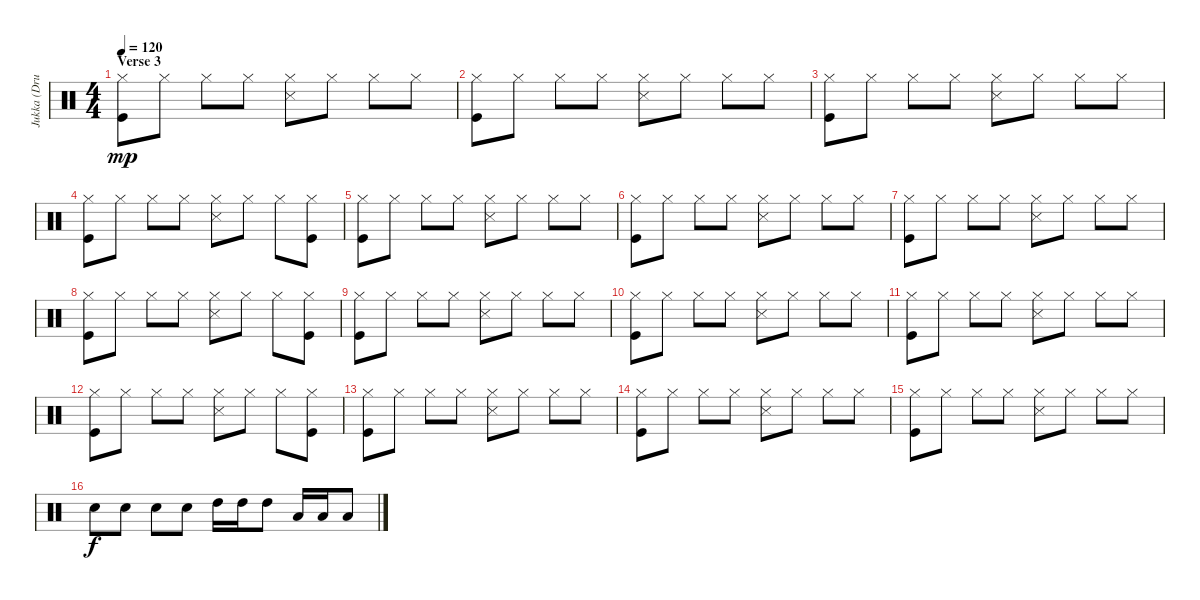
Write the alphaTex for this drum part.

\track ("Jukka (Drums)" "Jukka (Dru") {instrument percussion}
\staff {score}
\articulation defaults
\ts (4 4)
\section ("" "Verse 3")
\tempo 120
\clef neutral
\ks c
("Hi-Hat (closed)" "Kick (hit)").8{dy mp} "Hi-Hat (closed)".8 "Hi-Hat (closed)".8 "Hi-Hat (closed)".8 ("Hi-Hat (closed)" "Metronome (hit)").8 "Hi-Hat (closed)".8 "Hi-Hat (closed)".8 "Hi-Hat (closed)".8 |
("Hi-Hat (closed)" "Kick (hit)").8 "Hi-Hat (closed)".8 "Hi-Hat (closed)".8 "Hi-Hat (closed)".8 ("Hi-Hat (closed)" "Metronome (hit)").8 "Hi-Hat (closed)".8 "Hi-Hat (closed)".8 "Hi-Hat (closed)".8 |
("Hi-Hat (closed)" "Kick (hit)").8 "Hi-Hat (closed)".8 "Hi-Hat (closed)".8 "Hi-Hat (closed)".8 ("Hi-Hat (closed)" "Metronome (hit)").8 "Hi-Hat (closed)".8 "Hi-Hat (closed)".8 "Hi-Hat (closed)".8 |
("Hi-Hat (closed)" "Kick (hit)").8 "Hi-Hat (closed)".8 "Hi-Hat (closed)".8 "Hi-Hat (closed)".8 ("Hi-Hat (closed)" "Metronome (hit)").8 "Hi-Hat (closed)".8 "Hi-Hat (closed)".8 ("Hi-Hat (closed)" "Kick (hit)").8 |
("Hi-Hat (closed)" "Kick (hit)").8 "Hi-Hat (closed)".8 "Hi-Hat (closed)".8 "Hi-Hat (closed)".8 ("Hi-Hat (closed)" "Metronome (hit)").8 "Hi-Hat (closed)".8 "Hi-Hat (closed)".8 "Hi-Hat (closed)".8 |
("Hi-Hat (closed)" "Kick (hit)").8 "Hi-Hat (closed)".8 "Hi-Hat (closed)".8 "Hi-Hat (closed)".8 ("Hi-Hat (closed)" "Metronome (hit)").8 "Hi-Hat (closed)".8 "Hi-Hat (closed)".8 "Hi-Hat (closed)".8 |
("Hi-Hat (closed)" "Kick (hit)").8 "Hi-Hat (closed)".8 "Hi-Hat (closed)".8 "Hi-Hat (closed)".8 ("Hi-Hat (closed)" "Metronome (hit)").8 "Hi-Hat (closed)".8 "Hi-Hat (closed)".8 "Hi-Hat (closed)".8 |
("Hi-Hat (closed)" "Kick (hit)").8 "Hi-Hat (closed)".8 "Hi-Hat (closed)".8 "Hi-Hat (closed)".8 ("Hi-Hat (closed)" "Metronome (hit)").8 "Hi-Hat (closed)".8 "Hi-Hat (closed)".8 ("Hi-Hat (closed)" "Kick (hit)").8 |
("Hi-Hat (closed)" "Kick (hit)").8 "Hi-Hat (closed)".8 "Hi-Hat (closed)".8 "Hi-Hat (closed)".8 ("Hi-Hat (closed)" "Metronome (hit)").8 "Hi-Hat (closed)".8 "Hi-Hat (closed)".8 "Hi-Hat (closed)".8 |
("Hi-Hat (closed)" "Kick (hit)").8 "Hi-Hat (closed)".8 "Hi-Hat (closed)".8 "Hi-Hat (closed)".8 ("Hi-Hat (closed)" "Metronome (hit)").8 "Hi-Hat (closed)".8 "Hi-Hat (closed)".8 "Hi-Hat (closed)".8 |
("Hi-Hat (closed)" "Kick (hit)").8 "Hi-Hat (closed)".8 "Hi-Hat (closed)".8 "Hi-Hat (closed)".8 ("Hi-Hat (closed)" "Metronome (hit)").8 "Hi-Hat (closed)".8 "Hi-Hat (closed)".8 "Hi-Hat (closed)".8 |
("Hi-Hat (closed)" "Kick (hit)").8 "Hi-Hat (closed)".8 "Hi-Hat (closed)".8 "Hi-Hat (closed)".8 ("Hi-Hat (closed)" "Metronome (hit)").8 "Hi-Hat (closed)".8 "Hi-Hat (closed)".8 ("Hi-Hat (closed)" "Kick (hit)").8 |
("Hi-Hat (closed)" "Kick (hit)").8 "Hi-Hat (closed)".8 "Hi-Hat (closed)".8 "Hi-Hat (closed)".8 ("Hi-Hat (closed)" "Metronome (hit)").8 "Hi-Hat (closed)".8 "Hi-Hat (closed)".8 "Hi-Hat (closed)".8 |
("Hi-Hat (closed)" "Kick (hit)").8 "Hi-Hat (closed)".8 "Hi-Hat (closed)".8 "Hi-Hat (closed)".8 ("Hi-Hat (closed)" "Metronome (hit)").8 "Hi-Hat (closed)".8 "Hi-Hat (closed)".8 "Hi-Hat (closed)".8 |
("Hi-Hat (closed)" "Kick (hit)").8 "Hi-Hat (closed)".8 "Hi-Hat (closed)".8 "Hi-Hat (closed)".8 ("Hi-Hat (closed)" "Metronome (hit)").8 "Hi-Hat (closed)".8 "Hi-Hat (closed)".8 "Hi-Hat (closed)".8 |
"Electric Snare (hit)".8{dy f} "Electric Snare (hit)".8 "Electric Snare (hit)".8 "Electric Snare (hit)".8 "High Tom (hit)".16 "High Tom (hit)".16 "High Tom (hit)".8 "Low Tom (hit)".16 "Low Tom (hit)".16 "Low Tom (hit)".8
